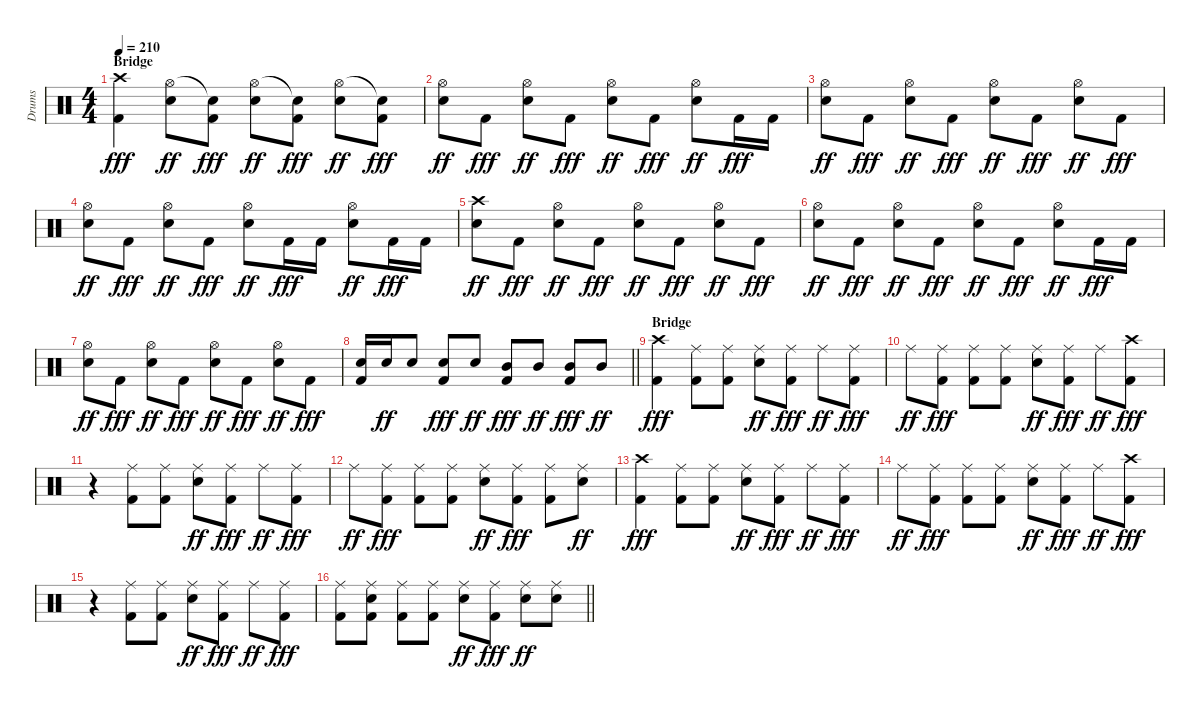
\track ("Drums" "Drums") {instrument percussion}
\staff {score}
\articulation defaults
\ts (4 4)
\section ("" "Bridge")
\tempo 210
\clef neutral
\ks c
("Crash high (hit)" "Kick (hit) 2").4{dy fff} ("Hi-Hat (open)" "Snare (hit) 2").8{dy ff} ("Snare (hit)"{t} "Kick (hit) 2").8{dy fff} ("Hi-Hat (open)" "Snare (hit) 2").8{dy ff} ("Snare (hit)"{t} "Kick (hit) 2").8{dy fff} ("Hi-Hat (open)" "Snare (hit) 2").8{dy ff} ("Snare (hit)"{t} "Kick (hit) 2").8{dy fff} |
("Hi-Hat (open)" "Snare (hit) 2").8{dy ff} "Kick (hit) 2".8{dy fff} ("Hi-Hat (open)" "Snare (hit) 2").8{dy ff} "Kick (hit) 2".8{dy fff} ("Hi-Hat (open)" "Snare (hit) 2").8{dy ff} "Kick (hit) 2".8{dy fff} ("Hi-Hat (open)" "Snare (hit) 2").8{dy ff} "Kick (hit) 2".16{dy fff} "Kick (hit) 2".16 |
("Hi-Hat (open)" "Snare (hit) 2").8{dy ff} "Kick (hit) 2".8{dy fff} ("Hi-Hat (open)" "Snare (hit) 2").8{dy ff} "Kick (hit) 2".8{dy fff} ("Hi-Hat (open)" "Snare (hit) 2").8{dy ff} "Kick (hit) 2".8{dy fff} ("Hi-Hat (open)" "Snare (hit) 2").8{dy ff} "Kick (hit) 2".8{dy fff} |
("Hi-Hat (open)" "Snare (hit) 2").8{dy ff} "Kick (hit) 2".8{dy fff} ("Hi-Hat (open)" "Snare (hit) 2").8{dy ff} "Kick (hit) 2".8{dy fff} ("Hi-Hat (open)" "Snare (hit) 2").8{dy ff} "Kick (hit) 2".16{dy fff} "Kick (hit) 2".16 ("Hi-Hat (open)" "Snare (hit) 2").8{dy ff} "Kick (hit) 2".16{dy fff} "Kick (hit) 2".16 |
("Crash high (hit)" "Snare (hit) 2").8{dy ff} "Kick (hit) 2".8{dy fff} ("Hi-Hat (open)" "Snare (hit) 2").8{dy ff} "Kick (hit) 2".8{dy fff} ("Hi-Hat (open)" "Snare (hit) 2").8{dy ff} "Kick (hit) 2".8{dy fff} ("Hi-Hat (open)" "Snare (hit) 2").8{dy ff} "Kick (hit) 2".8{dy fff} |
("Hi-Hat (open)" "Snare (hit) 2").8{dy ff} "Kick (hit) 2".8{dy fff} ("Hi-Hat (open)" "Snare (hit) 2").8{dy ff} "Kick (hit) 2".8{dy fff} ("Hi-Hat (open)" "Snare (hit) 2").8{dy ff} "Kick (hit) 2".8{dy fff} ("Hi-Hat (open)" "Snare (hit) 2").8{dy ff} "Kick (hit) 2".16{dy fff} "Kick (hit) 2".16 |
("Hi-Hat (open)" "Snare (hit) 2").8{dy ff} "Kick (hit) 2".8{dy fff} ("Hi-Hat (open)" "Snare (hit) 2").8{dy ff} "Kick (hit) 2".8{dy fff} ("Hi-Hat (open)" "Snare (hit) 2").8{dy ff} "Kick (hit) 2".8{dy fff} ("Hi-Hat (open)" "Snare (hit) 2").8{dy ff} "Kick (hit) 2".8{dy fff} |
\barLineRight lightlight
("Snare (hit) 2" "Kick (hit) 2").16 "Snare (hit) 2".16{dy ff} "Snare (hit) 2".8 ("Snare (hit) 2" "Kick (hit) 2").8{dy fff} "Snare (hit) 2".8{dy ff} ("Mid Tom (hit)" "Kick (hit) 2").8{dy fff} "Mid Tom (hit)".8{dy ff} ("Mid Tom (hit)" "Kick (hit) 2").8{dy fff} "Mid Tom (hit)".8{dy ff} |
\section ("" "Bridge")
("Crash high (hit)" "Kick (hit) 2").4{dy fff} ("Ride (middle)" "Kick (hit) 2").8 ("Ride (middle)" "Kick (hit) 2").8 ("Ride (middle)" "Snare (hit) 2").8{dy ff} ("Ride (middle)" "Kick (hit) 2").8{dy fff} "Ride (middle)".8{dy ff} ("Ride (middle)" "Kick (hit) 2").8{dy fff} |
"Ride (middle)".8{dy ff} ("Ride (middle)" "Kick (hit) 2").8{dy fff} ("Ride (middle)" "Kick (hit) 2").8 ("Ride (middle)" "Kick (hit) 2").8 ("Ride (middle)" "Snare (hit) 2").8{dy ff} ("Ride (middle)" "Kick (hit) 2").8{dy fff} "Ride (middle)".8{dy ff} ("Crash high (hit)" "Kick (hit) 2").8{dy fff} |
r.4 ("Ride (middle)" "Kick (hit) 2").8 ("Ride (middle)" "Kick (hit) 2").8 ("Ride (middle)" "Snare (hit) 2").8{dy ff} ("Ride (middle)" "Kick (hit) 2").8{dy fff} "Ride (middle)".8{dy ff} ("Ride (middle)" "Kick (hit) 2").8{dy fff} |
"Ride (middle)".8{dy ff} ("Ride (middle)" "Kick (hit) 2").8{dy fff} ("Ride (middle)" "Kick (hit) 2").8 ("Ride (middle)" "Kick (hit) 2").8 ("Ride (middle)" "Snare (hit) 2").8{dy ff} ("Ride (middle)" "Kick (hit) 2").8{dy fff} ("Ride (middle)" "Kick (hit) 2").8 ("Ride (middle)" "Snare (hit) 2").8{dy ff} |
("Crash high (hit)" "Kick (hit) 2").4{dy fff} ("Ride (middle)" "Kick (hit) 2").8 ("Ride (middle)" "Kick (hit) 2").8 ("Ride (middle)" "Snare (hit) 2").8{dy ff} ("Ride (middle)" "Kick (hit) 2").8{dy fff} "Ride (middle)".8{dy ff} ("Ride (middle)" "Kick (hit) 2").8{dy fff} |
"Ride (middle)".8{dy ff} ("Ride (middle)" "Kick (hit) 2").8{dy fff} ("Ride (middle)" "Kick (hit) 2").8 ("Ride (middle)" "Kick (hit) 2").8 ("Ride (middle)" "Snare (hit) 2").8{dy ff} ("Ride (middle)" "Kick (hit) 2").8{dy fff} "Ride (middle)".8{dy ff} ("Crash high (hit)" "Kick (hit) 2").8{dy fff} |
r.4 ("Ride (middle)" "Kick (hit) 2").8 ("Ride (middle)" "Kick (hit) 2").8 ("Ride (middle)" "Snare (hit) 2").8{dy ff} ("Ride (middle)" "Kick (hit) 2").8{dy fff} "Ride (middle)".8{dy ff} ("Ride (middle)" "Kick (hit) 2").8{dy fff} |
\barLineRight lightlight
("Ride (middle)" "Kick (hit) 2").8 ("Ride (middle)" "Snare (hit) 2" "Kick (hit) 2").8 ("Ride (middle)" "Kick (hit) 2").8 ("Ride (middle)" "Kick (hit) 2").8 ("Ride (middle)" "Snare (hit) 2").8{dy ff} ("Ride (middle)" "Kick (hit) 2").8{dy fff} ("Ride (middle)" "Snare (hit) 2").8{dy ff} ("Ride (middle)" "Snare (hit) 2").8
